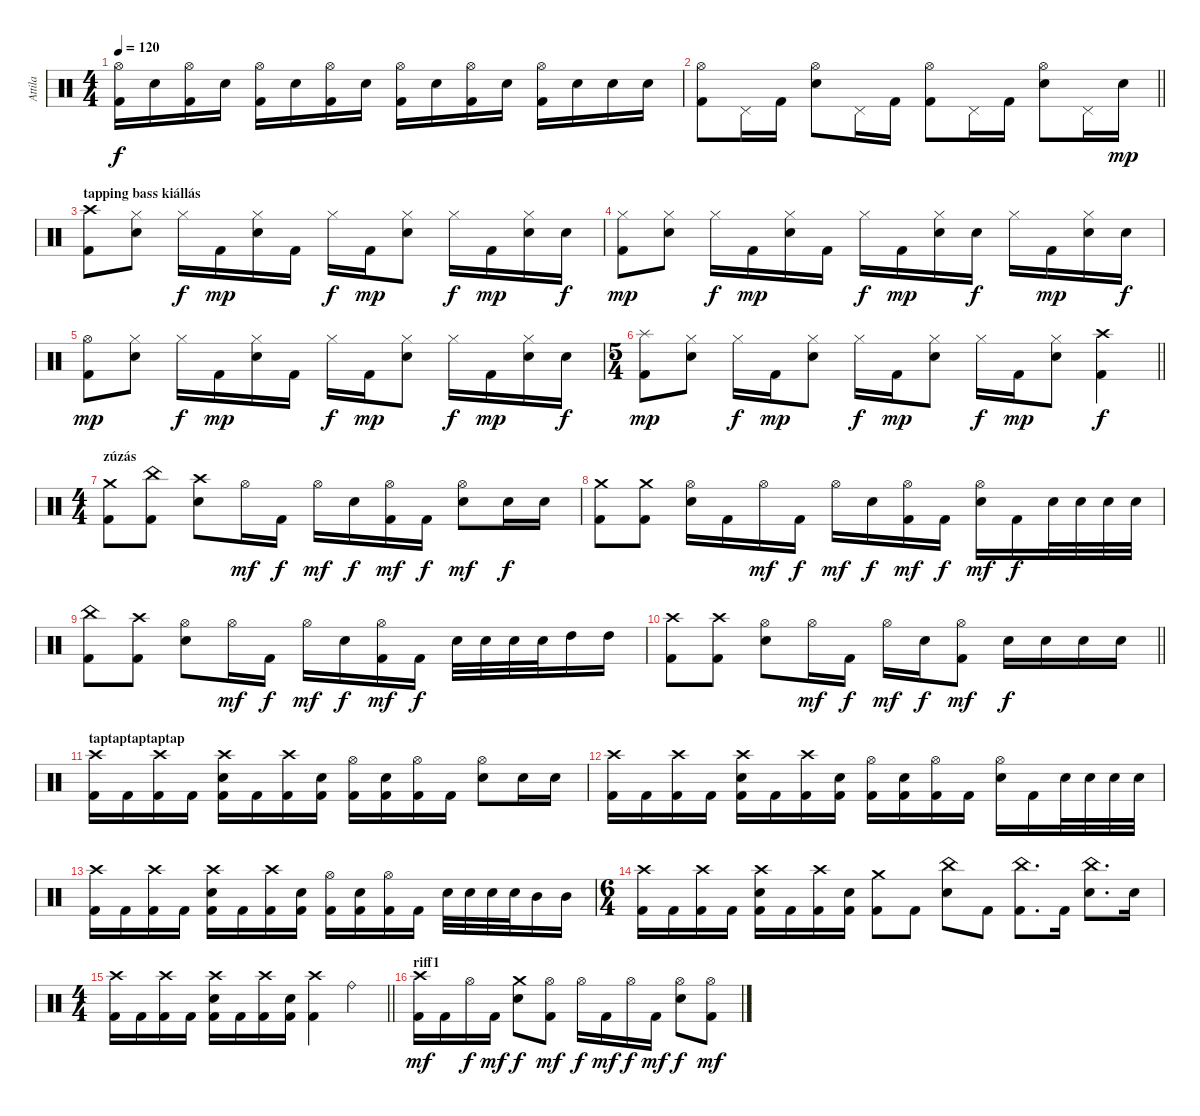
\track ("Attila" "Attila") {instrument percussion}
\staff {score}
\articulation defaults
\ts (4 4)
\tempo 120
\clef neutral
\ks c
("Hi-Hat (open)" "Kick (hit) 2").16{dy f} "Electric Snare (hit)".16 ("Hi-Hat (open)" "Kick (hit) 2").16 "Electric Snare (hit)".16 ("Hi-Hat (open)" "Kick (hit) 2").16 "Electric Snare (hit)".16 ("Hi-Hat (open)" "Kick (hit) 2").16 "Electric Snare (hit)".16 ("Hi-Hat (open)" "Kick (hit) 2").16 "Electric Snare (hit)".16 ("Hi-Hat (open)" "Kick (hit) 2").16 "Electric Snare (hit)".16 ("Hi-Hat (open)" "Kick (hit) 2").16 "Electric Snare (hit)".16 "Electric Snare (hit)".16 "Electric Snare (hit)".16 |
\barLineRight lightlight
("Hi-Hat (open)" "Kick (hit) 2").8 "Pedal Hi-Hat (hit)".16 "Kick (hit) 2".16 ("Hi-Hat (open)" "Electric Snare (hit)").8 "Pedal Hi-Hat (hit)".16 "Kick (hit) 2".16 ("Hi-Hat (open)" "Kick (hit) 2").8 "Pedal Hi-Hat (hit)".16 "Kick (hit) 2".16 ("Hi-Hat (open)" "Electric Snare (hit)").8 "Pedal Hi-Hat (hit)".16 "Electric Snare (hit)".16{dy mp} |
\section ("" "tapping bass kiállás")
("Crash high (hit)" "Kick (hit) 2").8 ("Hi-Hat (closed)" "Electric Snare (hit)").8 "Hi-Hat (closed)".16{dy f} "Kick (hit) 2".16{dy mp} ("Hi-Hat (closed)" "Electric Snare (hit)").16 "Kick (hit) 2".16 "Hi-Hat (closed)".16{dy f} "Kick (hit) 2".16{dy mp} ("Hi-Hat (closed)" "Electric Snare (hit)").8 "Hi-Hat (closed)".16{dy f} "Kick (hit) 2".16{dy mp} ("Hi-Hat (closed)" "Electric Snare (hit)").16 "Electric Snare (hit)".16{dy f} |
("Hi-Hat (closed)" "Kick (hit) 2").8{dy mp} ("Hi-Hat (closed)" "Electric Snare (hit)").8 "Hi-Hat (closed)".16{dy f} "Kick (hit) 2".16{dy mp} ("Hi-Hat (closed)" "Electric Snare (hit)").16 "Kick (hit) 2".16 "Hi-Hat (closed)".16{dy f} "Kick (hit) 2".16{dy mp} ("Hi-Hat (closed)" "Electric Snare (hit)").16 "Electric Snare (hit)".16{dy f} "Hi-Hat (closed)".16 "Kick (hit) 2".16{dy mp} ("Hi-Hat (closed)" "Electric Snare (hit)").16 "Electric Snare (hit)".16{dy f} |
("Hi-Hat (open)" "Kick (hit) 2").8{dy mp} ("Hi-Hat (closed)" "Electric Snare (hit)").8 "Hi-Hat (closed)".16{dy f} "Kick (hit) 2".16{dy mp} ("Hi-Hat (closed)" "Electric Snare (hit)").16 "Kick (hit) 2".16 "Hi-Hat (closed)".16{dy f} "Kick (hit) 2".16{dy mp} ("Hi-Hat (closed)" "Electric Snare (hit)").8 "Hi-Hat (closed)".16{dy f} "Kick (hit) 2".16{dy mp} ("Hi-Hat (closed)" "Electric Snare (hit)").16 "Electric Snare (hit)".16{dy f} |
\ts (5 4)
\barLineRight lightlight
("Splash (hit)" "Kick (hit) 2").8{dy mp} ("Hi-Hat (closed)" "Electric Snare (hit)").8 "Hi-Hat (closed)".16{dy f} "Kick (hit) 2".16{dy mp} ("Hi-Hat (closed)" "Electric Snare (hit)").8 "Hi-Hat (closed)".16{dy f} "Kick (hit) 2".16{dy mp} ("Hi-Hat (closed)" "Electric Snare (hit)").8 "Hi-Hat (closed)".16{dy f} "Kick (hit) 2".16{dy mp} ("Hi-Hat (closed)" "Electric Snare (hit)").8 ("Crash high (hit)" "Kick (hit) 2").4{dy f} |
\ts (4 4)
\section ("" "zúzás")
("Crash medium (hit)" "Kick (hit) 2").8 ("China (hit)" "Kick (hit) 2").8 ("Crash high (hit)" "Electric Snare (hit)").8 "Hi-Hat (open)".16{dy mf} "Kick (hit) 2".16{dy f} "Hi-Hat (open)".16{dy mf} "Electric Snare (hit)".16{dy f} ("Hi-Hat (open)" "Kick (hit) 2").16{dy mf} "Kick (hit) 2".16{dy f} ("Hi-Hat (open)" "Electric Snare (hit)").8{dy mf} "Electric Snare (hit)".16{dy f} "Electric Snare (hit)".16 |
("Crash medium (hit)" "Kick (hit) 2").8 ("Crash medium (hit)" "Kick (hit) 2").8 ("Hi-Hat (open)" "Electric Snare (hit)").16 "Kick (hit) 2".16 "Hi-Hat (open)".16{dy mf} "Kick (hit) 2".16{dy f} "Hi-Hat (open)".16{dy mf} "Electric Snare (hit)".16{dy f} ("Hi-Hat (open)" "Kick (hit) 2").16{dy mf} "Kick (hit) 2".16{dy f} ("Hi-Hat (open)" "Electric Snare (hit)").16{dy mf} "Kick (hit) 2".16{dy f} "Electric Snare (hit)".32 "Electric Snare (hit)".32 "Electric Snare (hit)".32 "Electric Snare (hit)".32 |
("China (hit)" "Kick (hit) 2").8 ("Crash high (hit)" "Kick (hit) 2").8 ("Hi-Hat (open)" "Electric Snare (hit)").8 "Hi-Hat (open)".16{dy mf} "Kick (hit) 2".16{dy f} "Hi-Hat (open)".16{dy mf} "Electric Snare (hit)".16{dy f} ("Hi-Hat (open)" "Kick (hit) 2").16{dy mf} "Kick (hit) 2".16{dy f} "Electric Snare (hit)".32 "Electric Snare (hit)".32 "Electric Snare (hit)".32 "Electric Snare (hit)".32 "High Tom (hit)".16 "High Tom (hit)".16 |
\barLineRight lightlight
("Crash high (hit)" "Kick (hit) 2").8 ("Crash high (hit)" "Kick (hit) 2").8 ("Hi-Hat (open)" "Electric Snare (hit)").8 "Hi-Hat (open)".16{dy mf} "Kick (hit) 2".16{dy f} "Hi-Hat (open)".16{dy mf} "Electric Snare (hit)".16{dy f} ("Hi-Hat (open)" "Kick (hit) 2").8{dy mf} "Electric Snare (hit)".16{dy f} "Electric Snare (hit)".16 "Electric Snare (hit)".16 "Electric Snare (hit)".16 |
\section ("" "taptaptaptaptap")
("Crash high (hit)" "Kick (hit) 2").16 "Kick (hit) 2".16 ("Crash high (hit)" "Kick (hit) 2").16 "Kick (hit) 2".16 ("Crash high (hit)" "Electric Snare (hit)" "Kick (hit) 2").16 "Kick (hit) 2".16 ("Crash high (hit)" "Kick (hit) 2").16 ("Electric Snare (hit)" "Kick (hit) 2").16 ("Hi-Hat (open)" "Kick (hit) 2").16 ("Electric Snare (hit)" "Kick (hit) 2").16 ("Hi-Hat (open)" "Kick (hit) 2").16 "Kick (hit) 2".16 ("Hi-Hat (open)" "Electric Snare (hit)").8 "Electric Snare (hit)".16 "Electric Snare (hit)".16 |
("Crash high (hit)" "Kick (hit) 2").16 "Kick (hit) 2".16 ("Crash high (hit)" "Kick (hit) 2").16 "Kick (hit) 2".16 ("Crash high (hit)" "Electric Snare (hit)" "Kick (hit) 2").16 "Kick (hit) 2".16 ("Crash high (hit)" "Kick (hit) 2").16 ("Electric Snare (hit)" "Kick (hit) 2").16 ("Hi-Hat (open)" "Kick (hit) 2").16 ("Electric Snare (hit)" "Kick (hit) 2").16 ("Hi-Hat (open)" "Kick (hit) 2").16 "Kick (hit) 2".16 ("Hi-Hat (open)" "Electric Snare (hit)").16 "Kick (hit) 2".16 "Electric Snare (hit)".32 "Electric Snare (hit)".32 "Electric Snare (hit)".32 "Electric Snare (hit)".32 |
("Crash high (hit)" "Kick (hit) 2").16 "Kick (hit) 2".16 ("Crash high (hit)" "Kick (hit) 2").16 "Kick (hit) 2".16 ("Crash high (hit)" "Electric Snare (hit)" "Kick (hit) 2").16 "Kick (hit) 2".16 ("Crash high (hit)" "Kick (hit) 2").16 ("Electric Snare (hit)" "Kick (hit) 2").16 ("Hi-Hat (open)" "Kick (hit) 2").16 ("Electric Snare (hit)" "Kick (hit) 2").16 ("Hi-Hat (open)" "Kick (hit) 2").16 "Kick (hit) 2".16 "Electric Snare (hit)".32 "Electric Snare (hit)".32 "Electric Snare (hit)".32 "Electric Snare (hit)".32 "Mid Tom (hit)".16 "Mid Tom (hit)".16 |
\ts (6 4)
("Crash high (hit)" "Kick (hit) 2").16 "Kick (hit) 2".16 ("Crash high (hit)" "Kick (hit) 2").16 "Kick (hit) 2".16 ("Crash high (hit)" "Electric Snare (hit)" "Kick (hit) 2").16 "Kick (hit) 2".16 ("Crash high (hit)" "Kick (hit) 2").16 ("Electric Snare (hit)" "Kick (hit) 2").16 ("Crash medium (hit)" "Kick (hit) 2").8 "Kick (hit) 2".8 ("China (hit)" "Electric Snare (hit)").8 "Kick (hit) 2".8 ("China (hit)" "Kick (hit) 2").8{d} "Kick (hit) 2".16 ("China (hit)" "Electric Snare (hit)").8{d} "Electric Snare (hit)".16 |
\ts (4 4)
\barLineRight lightlight
("Crash high (hit)" "Kick (hit) 2").16 "Kick (hit) 2".16 ("Crash high (hit)" "Kick (hit) 2").16 "Kick (hit) 2".16 ("Crash high (hit)" "Electric Snare (hit)" "Kick (hit) 2").16 "Kick (hit) 2".16 ("Crash high (hit)" "Kick (hit) 2").16 ("Electric Snare (hit)" "Kick (hit) 2").16 ("Crash high (hit)" "Kick (hit) 2").4 "Ride (bell)".4 |
\section ("" "riff1")
("Crash high (hit)" "Kick (hit) 2").16{dy mf} "Kick (hit) 2".16 "Hi-Hat (open)".16{dy f} "Kick (hit) 2".16{dy mf} ("Crash medium (hit)" "Electric Snare (hit)").8{dy f} ("Hi-Hat (open)" "Kick (hit) 2").8{dy mf} "Hi-Hat (open)".16{dy f} "Kick (hit) 2".16{dy mf} "Hi-Hat (open)".16{dy f} "Kick (hit) 2".16{dy mf} ("Hi-Hat (open)" "Electric Snare (hit)").8{dy f} ("Hi-Hat (open)" "Kick (hit) 2").8{dy mf}
